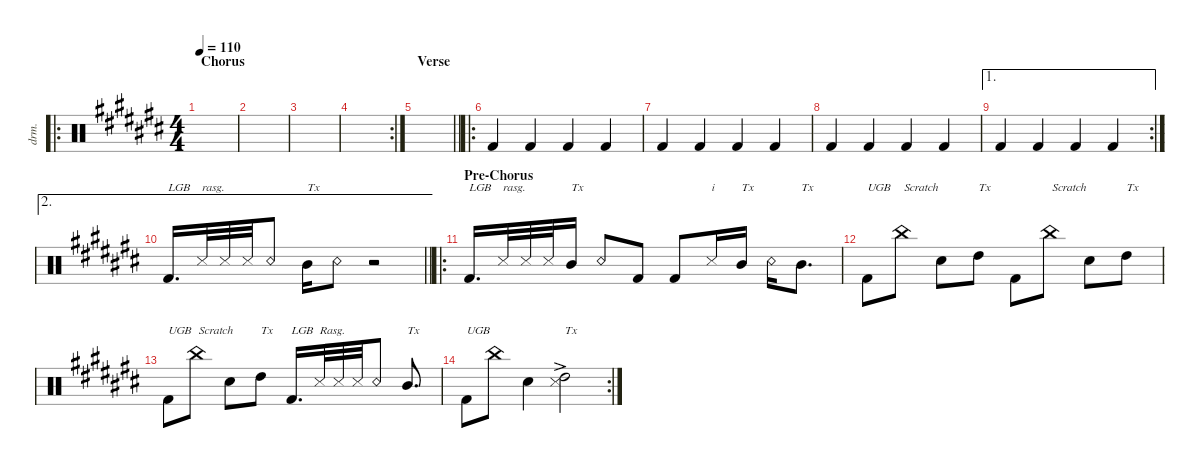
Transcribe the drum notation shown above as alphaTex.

\defaultSystemsLayout 4
\hideDynamics
\bracketExtendMode nobrackets
\otherSystemsTrackNameOrientation horizontal
\track ("Body Percussion" "drm.") {instrument percussion}
\staff {score}
\articulation defaults
\ro
\ts (4 4)
\section ("" "Chorus")
\scale
1.03712
\tempo 110
\accidentals auto
\clef neutral
\ottava regular
\simile none
\ks c#
|
\scale
0.962879 |
|
\rc 2
|
\section ("" "Verse ")
\barLineRight lightlight
|
\ro "Kick (hit) 2"{acc forcenatural}.4{beam Up} "Kick (hit) 2"{acc forcenatural}.4{beam Up} "Kick (hit) 2"{acc forcenatural}.4{beam Up} "Kick (hit) 2"{acc forcenatural}.4{beam Up}
|
"Kick (hit) 2"{acc forcenatural}.4{beam Up} "Kick (hit) 2"{acc forcenatural}.4{beam Up} "Kick (hit) 2"{acc forcenatural}.4{beam Up} "Kick (hit) 2"{acc forcenatural}.4{beam Up} |
"Kick (hit) 2"{acc forcenatural}.4{beam Up} "Kick (hit) 2"{acc forcenatural}.4{beam Up} "Kick (hit) 2"{acc forcenatural}.4{beam Up} "Kick (hit) 2"{acc forcenatural}.4{beam Up} |
\ae 1
\rc 2 "Kick (hit) 2"{acc forcenatural}.4{beam Up} "Kick (hit) 2"{acc forcenatural}.4{beam Up} "Kick (hit) 2"{acc forcenatural}.4{beam Up} "Kick (hit) 2"{acc forcenatural}.4{beam Up}
|
\ae 2
\barLineRight lightlight "Kick (hit) 2"{acc forcenatural}.16{d txt "LGB" beam Up} "Snare (side stick) 3"{acc forcenatural}.32{txt "rasg." beam Up} "Snare (side stick) 3"{acc forcenatural}.32{beam Up} "Snare (side stick) 3"{acc forcenatural}.32{beam Up} "Snare (rim shot)"{acc forcenatural}.8{beam Up} "Mid Tom (hit)"{acc forcenatural}.16{txt "Tx" beam Down} "Snare (rim shot)"{acc forcenatural}.8{beam Down}
r.2{beam Down} |
\ro
\section ("" "Pre-Chorus")
\scale
1.08759 "Kick (hit) 2"{acc forcenatural}.16{d txt "LGB" beam Up} "Snare (side stick) 3"{acc forcenatural}.32{txt "rasg." beam Up} "Snare (side stick) 3"{acc forcenatural}.32{beam Up} "Snare (side stick) 3"{acc forcenatural}.32{beam Up} "Mid Tom (hit)"{acc forcenatural}.16{txt "Tx" beam Up} "Snare (rim shot)"{acc forcenatural}.8{beam Up} "Kick (hit) 2"{acc forcenatural}.8{beam Up} "Kick (hit) 2"{acc forcenatural}.8{beam Up} "Snare (side stick) 3"{acc forcenatural}.16{txt "i" beam Up} "Mid Tom (hit)"{acc forcenatural}.16{txt "Tx" beam Up} "Snare (rim shot)"{acc forcenatural}.16{beam Down} "Mid Tom (hit)"{acc forcenatural}.8{d txt "Tx" beam Down} |
\scale
0.912414 "Kick (hit) 2"{acc forcenatural}.8{txt "UGB" beam Down} "China (choke)"{acc forcenatural}.8{txt "Scratch" beam Down} "Snare (hit) 2"{acc forcenatural}.8{beam Down} "High Tom (hit)"{acc forcenatural}.8{txt "Tx" beam Down} "Kick (hit) 2"{acc forcenatural}.8{beam Down} "China (choke)"{acc forcenatural}.8{txt "Scratch" beam Down} "Snare (hit) 2"{acc forcenatural}.8{beam Down} "High Tom (hit)"{acc forcenatural}.8{txt "Tx" beam Down} |
\scale
1.09559 "Kick (hit) 2"{acc forcenatural}.8{txt "UGB" beam Down} "China (choke)"{acc forcenatural}.8{txt "Scratch" beam Down} "Snare (hit) 2"{acc forcenatural}.8{beam Down} "High Tom (hit)"{acc forcenatural}.8{txt "Tx" beam Down} "Kick (hit) 2"{acc forcenatural}.16{d txt "LGB" beam Up} "Snare (side stick) 3"{acc forcenatural}.32{txt "Rasg." beam Up} "Snare (side stick) 3"{acc forcenatural}.32{beam Up} "Snare (side stick) 3"{acc forcenatural}.32{beam Up} "Snare (rim shot)"{acc forcenatural}.8{beam Up} "Mid Tom (hit)"{acc forcenatural}.8{d txt "Tx" beam Up} |
\rc 2
\scale
0.904412 "Kick (hit) 2"{acc forcenatural}.8{txt "UGB" beam Down} "China (choke)"{acc forcenatural}.8{beam Down} "Snare (hit) 2"{acc forcenatural}.4{beam Down} ("Snare (side stick) 3"{ac acc forcenatural} "High Tom (hit)"{acc forcenatural}).2{txt "Tx" beam Down}
